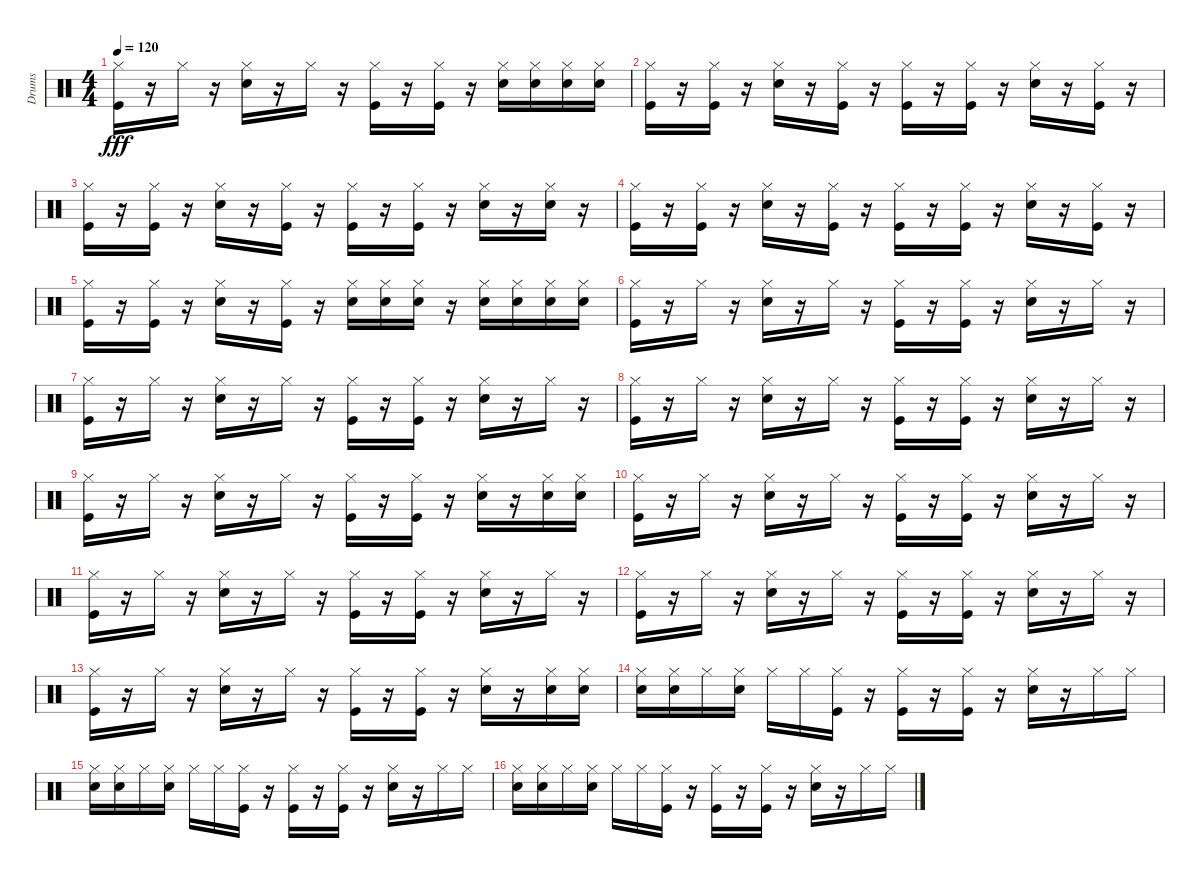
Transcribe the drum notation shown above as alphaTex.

\track ("Drums" "Drums") {instrument percussion}
\staff {score}
\articulation defaults
\ts (4 4)
\tempo 120
\clef neutral
\ks c
("Kick (hit)" "Hi-Hat (closed)").16{dy fff} r.16 "Hi-Hat (closed)".16 r.16 ("Snare (hit) 2" "Hi-Hat (closed)").16 r.16 "Hi-Hat (closed)".16 r.16 ("Kick (hit)" "Hi-Hat (closed)").16 r.16 ("Kick (hit)" "Hi-Hat (closed)").16 r.16 ("Snare (hit) 2" "Hi-Hat (closed)").16 ("Snare (hit) 2" "Hi-Hat (closed)").16 ("Snare (hit) 2" "Hi-Hat (closed)").16 ("Snare (hit) 2" "Hi-Hat (closed)").16 |
("Kick (hit)" "Hi-Hat (closed)").16 r.16 ("Kick (hit)" "Hi-Hat (closed)").16 r.16 ("Snare (hit) 2" "Hi-Hat (closed)").16 r.16 ("Kick (hit)" "Hi-Hat (closed)").16 r.16 ("Kick (hit)" "Hi-Hat (closed)").16 r.16 ("Kick (hit)" "Hi-Hat (closed)").16 r.16 ("Snare (hit) 2" "Hi-Hat (closed)").16 r.16 ("Kick (hit)" "Hi-Hat (closed)").16 r.16 |
("Kick (hit)" "Hi-Hat (closed)").16 r.16 ("Kick (hit)" "Hi-Hat (closed)").16 r.16 ("Snare (hit) 2" "Hi-Hat (closed)").16 r.16 ("Kick (hit)" "Hi-Hat (closed)").16 r.16 ("Kick (hit)" "Hi-Hat (closed)").16 r.16 ("Kick (hit)" "Hi-Hat (closed)").16 r.16 ("Snare (hit) 2" "Hi-Hat (closed)").16 r.16 ("Snare (hit) 2" "Hi-Hat (closed)").16 r.16 |
("Kick (hit)" "Hi-Hat (closed)").16 r.16 ("Kick (hit)" "Hi-Hat (closed)").16 r.16 ("Snare (hit) 2" "Hi-Hat (closed)").16 r.16 ("Kick (hit)" "Hi-Hat (closed)").16 r.16 ("Kick (hit)" "Hi-Hat (closed)").16 r.16 ("Kick (hit)" "Hi-Hat (closed)").16 r.16 ("Snare (hit) 2" "Hi-Hat (closed)").16 r.16 ("Kick (hit)" "Hi-Hat (closed)").16 r.16 |
("Kick (hit)" "Hi-Hat (closed)").16 r.16 ("Kick (hit)" "Hi-Hat (closed)").16 r.16 ("Snare (hit) 2" "Hi-Hat (closed)").16 r.16 ("Kick (hit)" "Hi-Hat (closed)").16 r.16 ("Snare (hit) 2" "Hi-Hat (closed)").16 ("Snare (hit) 2" "Hi-Hat (closed)").16 ("Snare (hit) 2" "Hi-Hat (closed)").16 r.16 ("Snare (hit) 2" "Hi-Hat (closed)").16 ("Snare (hit) 2" "Hi-Hat (closed)").16 ("Snare (hit) 2" "Hi-Hat (closed)").16 ("Snare (hit) 2" "Hi-Hat (closed)").16 |
("Kick (hit)" "Hi-Hat (closed)").16 r.16 "Hi-Hat (closed)".16 r.16 ("Snare (hit) 2" "Hi-Hat (closed)").16 r.16 "Hi-Hat (closed)".16 r.16 ("Kick (hit)" "Hi-Hat (closed)").16 r.16 ("Kick (hit)" "Hi-Hat (closed)").16 r.16 ("Snare (hit) 2" "Hi-Hat (closed)").16 r.16 "Hi-Hat (closed)".16 r.16 |
("Kick (hit)" "Hi-Hat (closed)").16 r.16 "Hi-Hat (closed)".16 r.16 ("Snare (hit) 2" "Hi-Hat (closed)").16 r.16 "Hi-Hat (closed)".16 r.16 ("Kick (hit)" "Hi-Hat (closed)").16 r.16 ("Kick (hit)" "Hi-Hat (closed)").16 r.16 ("Snare (hit) 2" "Hi-Hat (closed)").16 r.16 "Hi-Hat (closed)".16 r.16 |
("Kick (hit)" "Hi-Hat (closed)").16 r.16 "Hi-Hat (closed)".16 r.16 ("Snare (hit) 2" "Hi-Hat (closed)").16 r.16 "Hi-Hat (closed)".16 r.16 ("Kick (hit)" "Hi-Hat (closed)").16 r.16 ("Kick (hit)" "Hi-Hat (closed)").16 r.16 ("Snare (hit) 2" "Hi-Hat (closed)").16 r.16 "Hi-Hat (closed)".16 r.16 |
("Kick (hit)" "Hi-Hat (closed)").16 r.16 "Hi-Hat (closed)".16 r.16 ("Snare (hit) 2" "Hi-Hat (closed)").16 r.16 "Hi-Hat (closed)".16 r.16 ("Kick (hit)" "Hi-Hat (closed)").16 r.16 ("Kick (hit)" "Hi-Hat (closed)").16 r.16 ("Snare (hit) 2" "Hi-Hat (closed)").16 r.16 ("Snare (hit) 2" "Hi-Hat (closed)").16 ("Snare (hit) 2" "Hi-Hat (closed)").16 |
("Kick (hit)" "Hi-Hat (closed)").16 r.16 "Hi-Hat (closed)".16 r.16 ("Snare (hit) 2" "Hi-Hat (closed)").16 r.16 "Hi-Hat (closed)".16 r.16 ("Kick (hit)" "Hi-Hat (closed)").16 r.16 ("Kick (hit)" "Hi-Hat (closed)").16 r.16 ("Snare (hit) 2" "Hi-Hat (closed)").16 r.16 "Hi-Hat (closed)".16 r.16 |
("Kick (hit)" "Hi-Hat (closed)").16 r.16 "Hi-Hat (closed)".16 r.16 ("Snare (hit) 2" "Hi-Hat (closed)").16 r.16 "Hi-Hat (closed)".16 r.16 ("Kick (hit)" "Hi-Hat (closed)").16 r.16 ("Kick (hit)" "Hi-Hat (closed)").16 r.16 ("Snare (hit) 2" "Hi-Hat (closed)").16 r.16 "Hi-Hat (closed)".16 r.16 |
("Kick (hit)" "Hi-Hat (closed)").16 r.16 "Hi-Hat (closed)".16 r.16 ("Snare (hit) 2" "Hi-Hat (closed)").16 r.16 "Hi-Hat (closed)".16 r.16 ("Kick (hit)" "Hi-Hat (closed)").16 r.16 ("Kick (hit)" "Hi-Hat (closed)").16 r.16 ("Snare (hit) 2" "Hi-Hat (closed)").16 r.16 "Hi-Hat (closed)".16 r.16 |
("Kick (hit)" "Hi-Hat (closed)").16 r.16 "Hi-Hat (closed)".16 r.16 ("Snare (hit) 2" "Hi-Hat (closed)").16 r.16 "Hi-Hat (closed)".16 r.16 ("Kick (hit)" "Hi-Hat (closed)").16 r.16 ("Kick (hit)" "Hi-Hat (closed)").16 r.16 ("Snare (hit) 2" "Hi-Hat (closed)").16 r.16 ("Snare (hit) 2" "Hi-Hat (closed)").16 ("Snare (hit) 2" "Hi-Hat (closed)").16 |
("Snare (hit) 2" "Hi-Hat (closed)").16 ("Snare (hit) 2" "Hi-Hat (closed)").16 "Hi-Hat (closed)".16 ("Snare (hit) 2" "Hi-Hat (closed)").16 "Hi-Hat (closed)".16 "Hi-Hat (closed)".16 ("Kick (hit)" "Hi-Hat (closed)").16 r.16 ("Kick (hit)" "Hi-Hat (closed)").16 r.16 ("Kick (hit)" "Hi-Hat (closed)").16 r.16 ("Snare (hit) 2" "Hi-Hat (closed)").16 r.16 "Hi-Hat (closed)".16 "Hi-Hat (closed)".16 |
("Snare (hit) 2" "Hi-Hat (closed)").16 ("Snare (hit) 2" "Hi-Hat (closed)").16 "Hi-Hat (closed)".16 ("Snare (hit) 2" "Hi-Hat (closed)").16 "Hi-Hat (closed)".16 "Hi-Hat (closed)".16 ("Kick (hit)" "Hi-Hat (closed)").16 r.16 ("Kick (hit)" "Hi-Hat (closed)").16 r.16 ("Kick (hit)" "Hi-Hat (closed)").16 r.16 ("Snare (hit) 2" "Hi-Hat (closed)").16 r.16 "Hi-Hat (closed)".16 "Hi-Hat (closed)".16 |
("Snare (hit) 2" "Hi-Hat (closed)").16 ("Snare (hit) 2" "Hi-Hat (closed)").16 "Hi-Hat (closed)".16 ("Snare (hit) 2" "Hi-Hat (closed)").16 "Hi-Hat (closed)".16 "Hi-Hat (closed)".16 ("Kick (hit)" "Hi-Hat (closed)").16 r.16 ("Kick (hit)" "Hi-Hat (closed)").16 r.16 ("Kick (hit)" "Hi-Hat (closed)").16 r.16 ("Snare (hit) 2" "Hi-Hat (closed)").16 r.16 "Hi-Hat (closed)".16 "Hi-Hat (closed)".16
